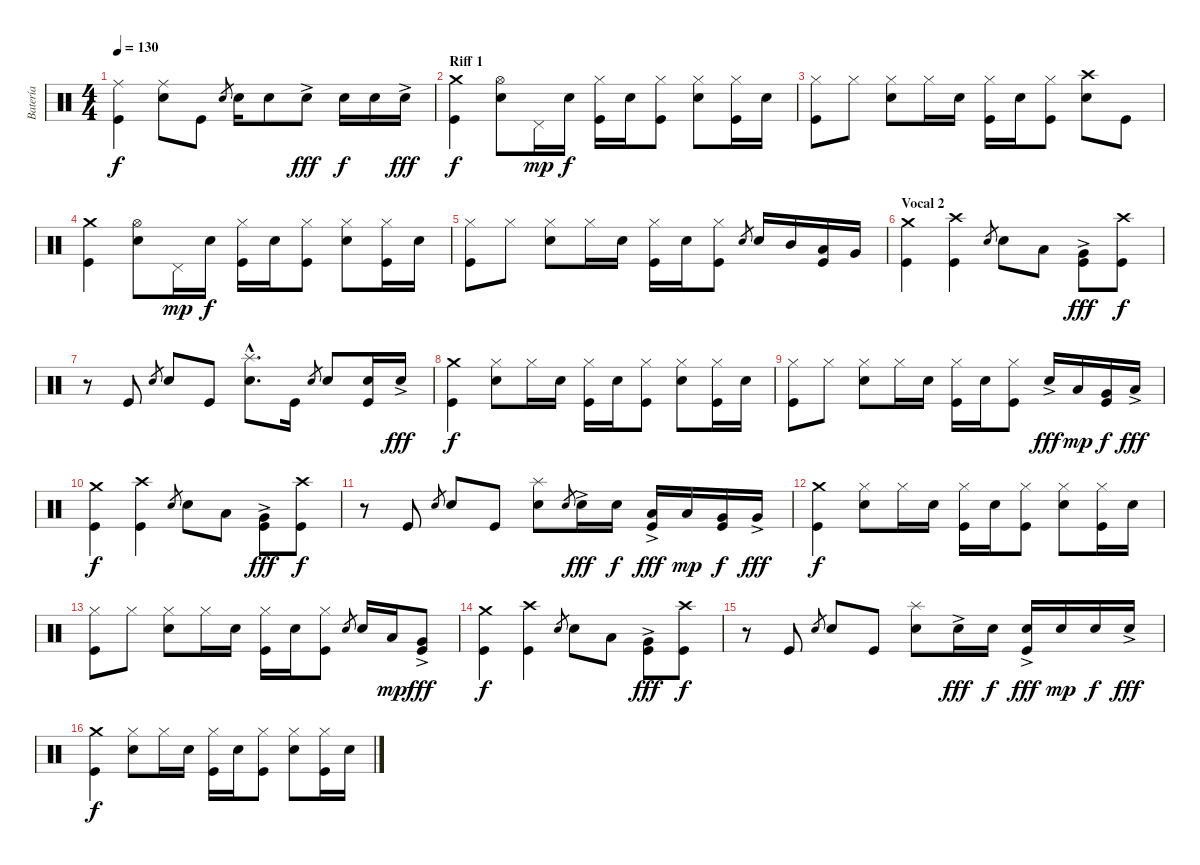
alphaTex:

\track ("Batería" "Batería") {instrument percussion}
\staff {score}
\articulation defaults
\ts (4 4)
\tempo 130
\clef neutral
\ks c
("Kick (hit)" "Ride (middle)").4{dy f} ("Electric Snare (hit)" "Ride (middle)").8 "Kick (hit)".8 "Electric Snare (hit)".8{gr} "Electric Snare (hit)".16 "Electric Snare (hit)".8 "Electric Snare (hit)"{ac}.8{dy fff} "Electric Snare (hit)".16{dy f} "Electric Snare (hit)".16 "Electric Snare (hit)"{ac}.16{dy fff} |
\section ("" "Riff 1")
("Kick (hit)" "Crash medium (hit)").4{dy f} ("Electric Snare (hit)" "Hi-Hat (open)").8 "Pedal Hi-Hat (hit)".16{dy mp} "Electric Snare (hit)".16{dy f} ("Kick (hit)" "Hi-Hat (closed)").16 "Electric Snare (hit)".16 ("Kick (hit)" "Hi-Hat (closed)").8 ("Electric Snare (hit)" "Hi-Hat (closed)").8 ("Kick (hit)" "Hi-Hat (closed)").16 "Electric Snare (hit)".16 |
("Kick (hit)" "Hi-Hat (closed)").8 "Hi-Hat (closed)".8 ("Electric Snare (hit)" "Hi-Hat (closed)").8 "Hi-Hat (closed)".16 "Electric Snare (hit)".16 ("Kick (hit)" "Hi-Hat (closed)").16 "Electric Snare (hit)".16 ("Kick (hit)" "Hi-Hat (closed)").8 ("Electric Snare (hit)" "Crash high (hit)").8 "Kick (hit)".8 |
("Kick (hit)" "Crash medium (hit)").4 ("Electric Snare (hit)" "Hi-Hat (open)").8 "Pedal Hi-Hat (hit)".16{dy mp} "Electric Snare (hit)".16{dy f} ("Kick (hit)" "Hi-Hat (closed)").16 "Electric Snare (hit)".16 ("Kick (hit)" "Hi-Hat (closed)").8 ("Electric Snare (hit)" "Hi-Hat (closed)").8 ("Kick (hit)" "Hi-Hat (closed)").16 "Electric Snare (hit)".16 |
("Kick (hit)" "Hi-Hat (closed)").8 "Hi-Hat (closed)".8 ("Electric Snare (hit)" "Hi-Hat (closed)").8 "Hi-Hat (closed)".16 "Electric Snare (hit)".16 ("Kick (hit)" "Hi-Hat (closed)").16 "Electric Snare (hit)".16 ("Kick (hit)" "Hi-Hat (closed)").8 "Electric Snare (hit)".8{gr} "Electric Snare (hit)".16 "Mid Tom (hit)".16 ("Kick (hit)" "Low Tom (hit)").16 "Very Low Tom (hit)".16 |
\section ("" "Vocal 2")
("Kick (hit)" "Crash medium (hit)").4 ("Kick (hit)" "Crash high (hit)").4 "Electric Snare (hit)".8{gr} "Electric Snare (hit)".8 "Low Tom (hit)".8 ("Kick (hit)" "Very Low Tom (hit)"{ac}).8{dy fff} ("Kick (hit)" "Crash high (hit)").8{dy f} |
r.8 "Kick (hit)".8 "Electric Snare (hit)".8{gr} "Electric Snare (hit)".8 "Kick (hit)".8 ("Electric Snare (hit)"{hac} "Splash (hit)"{hac}).8{d} "Kick (hit)".16 "Electric Snare (hit)".8{gr} "Electric Snare (hit)".8 ("Kick (hit)" "Electric Snare (hit)").16 "Electric Snare (hit)"{ac}.16{dy fff} |
("Kick (hit)" "Crash medium (hit)").4{dy f} ("Electric Snare (hit)" "Hi-Hat (closed)").8 "Hi-Hat (closed)".16 "Electric Snare (hit)".16 ("Kick (hit)" "Hi-Hat (closed)").16 "Electric Snare (hit)".16 ("Kick (hit)" "Hi-Hat (closed)").8 ("Electric Snare (hit)" "Hi-Hat (closed)").8 ("Kick (hit)" "Hi-Hat (closed)").16 "Electric Snare (hit)".16 |
("Kick (hit)" "Hi-Hat (closed)").8 "Hi-Hat (closed)".8 ("Electric Snare (hit)" "Hi-Hat (closed)").8 "Hi-Hat (closed)".16 "Electric Snare (hit)".16 ("Kick (hit)" "Hi-Hat (closed)").16 "Electric Snare (hit)".16 ("Kick (hit)" "Hi-Hat (closed)").8 "Electric Snare (hit)"{ac}.16{dy fff} "Low Tom (hit)".16{dy mp} ("Kick (hit)" "Very Low Tom (hit)").16{dy f} "Low Floor Tom (hit)"{ac}.16{dy fff} |
("Kick (hit)" "Crash medium (hit)").4{dy f} ("Kick (hit)" "Crash high (hit)").4 "Electric Snare (hit)".8{gr} "Electric Snare (hit)".8 "Low Tom (hit)".8 ("Kick (hit)" "Very Low Tom (hit)"{ac}).8{dy fff} ("Kick (hit)" "Crash high (hit)").8{dy f} |
r.8 "Kick (hit)".8 "Electric Snare (hit)".8{gr} "Electric Snare (hit)".8 "Kick (hit)".8 ("Electric Snare (hit)" "Splash (hit)").8 "Electric Snare (hit)".8{gr} "Electric Snare (hit)"{ac}.16{dy fff} "Electric Snare (hit)".16{dy f} ("Kick (hit)" "Low Tom (hit)"{ac}).16{dy fff} "Low Tom (hit)".16{dy mp} ("Kick (hit)" "Very Low Tom (hit)").16{dy f} "Very Low Tom (hit)"{ac}.16{dy fff} |
("Kick (hit)" "Crash medium (hit)").4{dy f} ("Electric Snare (hit)" "Hi-Hat (closed)").8 "Hi-Hat (closed)".16 "Electric Snare (hit)".16 ("Kick (hit)" "Hi-Hat (closed)").16 "Electric Snare (hit)".16 ("Kick (hit)" "Hi-Hat (closed)").8 ("Electric Snare (hit)" "Hi-Hat (closed)").8 ("Kick (hit)" "Hi-Hat (closed)").16 "Electric Snare (hit)".16 |
("Kick (hit)" "Hi-Hat (closed)").8 "Hi-Hat (closed)".8 ("Electric Snare (hit)" "Hi-Hat (closed)").8 "Hi-Hat (closed)".16 "Electric Snare (hit)".16 ("Kick (hit)" "Hi-Hat (closed)").16 "Electric Snare (hit)".16 ("Kick (hit)" "Hi-Hat (closed)").8 "Electric Snare (hit)".8{gr} "Electric Snare (hit)".16 "Low Tom (hit)".16{dy mp} ("Kick (hit)" "Very Low Tom (hit)"{ac}).8{dy fff} |
("Kick (hit)" "Crash medium (hit)").4{dy f} ("Kick (hit)" "Crash high (hit)").4 "Electric Snare (hit)".8{gr} "Electric Snare (hit)".8 "Low Tom (hit)".8 ("Kick (hit)" "Very Low Tom (hit)"{ac}).8{dy fff} ("Kick (hit)" "Crash high (hit)").8{dy f} |
r.8 "Kick (hit)".8 "Electric Snare (hit)".8{gr} "Electric Snare (hit)".8 "Kick (hit)".8 ("Electric Snare (hit)" "Splash (hit)").8 "Electric Snare (hit)"{ac}.16{dy fff} "Electric Snare (hit)".16{dy f} ("Kick (hit)" "Electric Snare (hit)"{ac}).16{dy fff} "Electric Snare (hit)".16{dy mp} "Electric Snare (hit)".16{dy f} "Electric Snare (hit)"{ac}.16{dy fff} |
("Kick (hit)" "Crash medium (hit)").4{dy f} ("Electric Snare (hit)" "Hi-Hat (closed)").8 "Hi-Hat (closed)".16 "Electric Snare (hit)".16 ("Kick (hit)" "Hi-Hat (closed)").16 "Electric Snare (hit)".16 ("Kick (hit)" "Hi-Hat (closed)").8 ("Electric Snare (hit)" "Hi-Hat (closed)").8 ("Kick (hit)" "Hi-Hat (closed)").16 "Electric Snare (hit)".16
